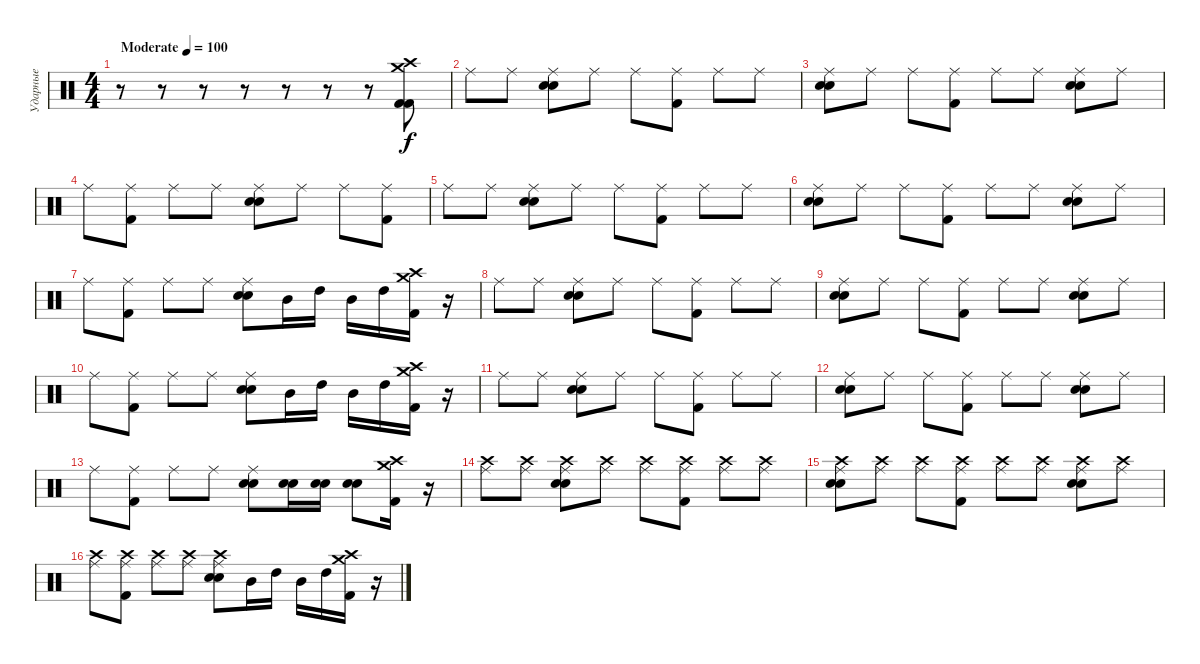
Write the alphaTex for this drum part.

\track ("Ударные" "Ударные") {instrument percussion}
\staff {score}
\articulation defaults
\ts (4 4)
\tempo (100 "Moderate")
\clef neutral
\ks c
r.8{dy f} r.8 r.8 r.8 r.8 r.8 r.8 ("Crash high (hit)" "Crash medium (hit)" "Kick (hit) 2" "Kick (hit) 2").8 |
"Ride (middle)".8 "Ride (middle)".8 ("Hand Clap (hit)" "Electric Snare (hit)" "Ride (middle)").8 "Ride (middle)".8 "Ride (middle)".8 ("Kick (hit) 2" "Ride (middle)").8 "Ride (middle)".8 "Ride (middle)".8 |
("Hand Clap (hit)" "Electric Snare (hit)" "Ride (middle)").8 "Ride (middle)".8 "Ride (middle)".8 ("Kick (hit) 2" "Ride (middle)").8 "Ride (middle)".8 "Ride (middle)".8 ("Hand Clap (hit)" "Electric Snare (hit)" "Ride (middle)").8 "Ride (middle)".8 |
"Ride (middle)".8 ("Kick (hit) 2" "Ride (middle)").8 "Ride (middle)".8 "Ride (middle)".8 ("Hand Clap (hit)" "Electric Snare (hit)" "Ride (middle)").8 "Ride (middle)".8 "Ride (middle)".8 ("Kick (hit) 2" "Ride (middle)").8 |
"Ride (middle)".8 "Ride (middle)".8 ("Hand Clap (hit)" "Electric Snare (hit)" "Ride (middle)").8 "Ride (middle)".8 "Ride (middle)".8 ("Kick (hit) 2" "Ride (middle)").8 "Ride (middle)".8 "Ride (middle)".8 |
("Hand Clap (hit)" "Electric Snare (hit)" "Ride (middle)").8 "Ride (middle)".8 "Ride (middle)".8 ("Kick (hit) 2" "Ride (middle)").8 "Ride (middle)".8 "Ride (middle)".8 ("Hand Clap (hit)" "Electric Snare (hit)" "Ride (middle)").8 "Ride (middle)".8 |
"Ride (middle)".8 ("Kick (hit) 2" "Ride (middle)").8 "Ride (middle)".8 "Ride (middle)".8 ("Hand Clap (hit)" "Electric Snare (hit)" "Ride (middle)").8 "Mid Tom (hit)".16 "High Tom (hit)".16 "Mid Tom (hit)".16 "High Tom (hit)".16 ("Crash medium (hit)" "Crash high (hit)" "Kick (hit) 2").16 r.16 |
"Ride (middle)".8 "Ride (middle)".8 ("Hand Clap (hit)" "Electric Snare (hit)" "Ride (middle)").8 "Ride (middle)".8 "Ride (middle)".8 ("Kick (hit) 2" "Ride (middle)").8 "Ride (middle)".8 "Ride (middle)".8 |
("Hand Clap (hit)" "Electric Snare (hit)" "Ride (middle)").8 "Ride (middle)".8 "Ride (middle)".8 ("Kick (hit) 2" "Ride (middle)").8 "Ride (middle)".8 "Ride (middle)".8 ("Hand Clap (hit)" "Electric Snare (hit)" "Ride (middle)").8 "Ride (middle)".8 |
"Ride (middle)".8 ("Kick (hit) 2" "Ride (middle)").8 "Ride (middle)".8 "Ride (middle)".8 ("Hand Clap (hit)" "Electric Snare (hit)" "Ride (middle)").8 "Mid Tom (hit)".16 "High Tom (hit)".16 "Mid Tom (hit)".16 "High Tom (hit)".16 ("Crash medium (hit)" "Crash high (hit)" "Kick (hit) 2").16 r.16 |
"Ride (middle)".8 "Ride (middle)".8 ("Hand Clap (hit)" "Electric Snare (hit)" "Ride (middle)").8 "Ride (middle)".8 "Ride (middle)".8 ("Kick (hit) 2" "Ride (middle)").8 "Ride (middle)".8 "Ride (middle)".8 |
("Hand Clap (hit)" "Electric Snare (hit)" "Ride (middle)").8 "Ride (middle)".8 "Ride (middle)".8 ("Kick (hit) 2" "Ride (middle)").8 "Ride (middle)".8 "Ride (middle)".8 ("Hand Clap (hit)" "Electric Snare (hit)" "Ride (middle)").8 "Ride (middle)".8 |
"Ride (middle)".8 ("Kick (hit) 2" "Ride (middle)").8 "Ride (middle)".8 "Ride (middle)".8 ("Hand Clap (hit)" "Electric Snare (hit)" "Ride (middle)").8 ("Hand Clap (hit)" "Snare (hit) 2").16 ("Hand Clap (hit)" "Snare (hit) 2").16 ("Hand Clap (hit)" "Snare (hit) 2").8 ("Crash medium (hit)" "Crash high (hit)" "Kick (hit) 2").16 r.16 |
("Crash high (hit)" "Ride (middle)").8 ("Crash high (hit)" "Ride (middle)").8 ("Crash high (hit)" "Hand Clap (hit)" "Electric Snare (hit)" "Ride (middle)").8 ("Crash high (hit)" "Ride (middle)").8 ("Crash high (hit)" "Ride (middle)").8 ("Crash high (hit)" "Kick (hit) 2" "Ride (middle)").8 ("Crash high (hit)" "Ride (middle)").8 ("Crash high (hit)" "Ride (middle)").8 |
("Crash high (hit)" "Hand Clap (hit)" "Electric Snare (hit)" "Ride (middle)").8 ("Crash high (hit)" "Ride (middle)").8 ("Crash high (hit)" "Ride (middle)").8 ("Crash high (hit)" "Kick (hit) 2" "Ride (middle)").8 ("Crash high (hit)" "Ride (middle)").8 ("Crash high (hit)" "Ride (middle)").8 ("Crash high (hit)" "Hand Clap (hit)" "Electric Snare (hit)" "Ride (middle)").8 ("Crash high (hit)" "Ride (middle)").8 |
("Crash high (hit)" "Ride (middle)").8 ("Crash high (hit)" "Kick (hit) 2" "Ride (middle)").8 ("Crash high (hit)" "Ride (middle)").8 ("Crash high (hit)" "Ride (middle)").8 ("Crash high (hit)" "Hand Clap (hit)" "Electric Snare (hit)" "Ride (middle)").8 "Mid Tom (hit)".16 "High Tom (hit)".16 "Mid Tom (hit)".16 "High Tom (hit)".16 ("Crash medium (hit)" "Crash high (hit)" "Kick (hit) 2").16 r.16
